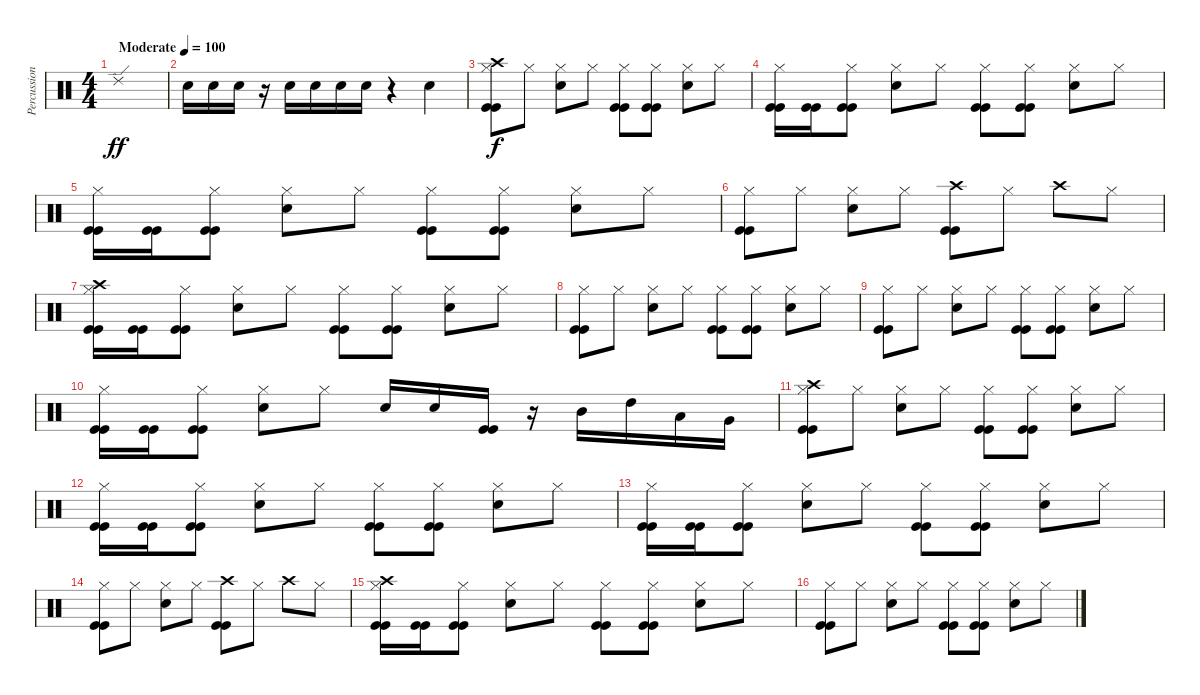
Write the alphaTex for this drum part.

\track ("Percussion" "Percussion") {instrument percussion}
\staff {score}
\articulation defaults
\ts (4 4)
\tempo (100 "Moderate")
\clef neutral
\ks c "Ride (edge) 2".1{dy ff}
|
"Snare (hit) 2".16 "Snare (hit) 2".16 "Snare (hit) 2".16 r.16 "Snare (hit) 2".16 "Snare (hit) 2".16 "Snare (hit) 2".16 "Snare (hit) 2".16 r.4 "Snare (hit) 2".4 |
("Kick (hit)" "Kick (hit)" "Hi-Hat (closed)" "Crash high (hit)").8{dy f} "Hi-Hat (closed)".8 ("Snare (hit) 2" "Hi-Hat (closed)").8 "Hi-Hat (closed)".8 ("Kick (hit)" "Kick (hit)" "Hi-Hat (closed)").8 ("Kick (hit)" "Kick (hit)" "Hi-Hat (closed)").8 ("Snare (hit) 2" "Hi-Hat (closed)").8 "Hi-Hat (closed)".8 |
("Kick (hit)" "Kick (hit)" "Hi-Hat (closed)").16 ("Kick (hit)" "Kick (hit)").16 ("Kick (hit)" "Kick (hit)" "Hi-Hat (closed)").8 ("Snare (hit) 2" "Hi-Hat (closed)").8 "Hi-Hat (closed)".8 ("Kick (hit)" "Kick (hit)" "Hi-Hat (closed)").8 ("Kick (hit)" "Kick (hit)" "Hi-Hat (closed)").8 ("Snare (hit) 2" "Hi-Hat (closed)").8 "Hi-Hat (closed)".8 |
("Kick (hit)" "Kick (hit)" "Hi-Hat (closed)").16 ("Kick (hit)" "Kick (hit)").16 ("Kick (hit)" "Kick (hit)" "Hi-Hat (closed)").8 ("Snare (hit) 2" "Hi-Hat (closed)").8 "Hi-Hat (closed)".8 ("Kick (hit)" "Kick (hit)" "Hi-Hat (closed)").8 ("Kick (hit)" "Kick (hit)" "Hi-Hat (closed)").8 ("Snare (hit) 2" "Hi-Hat (closed)").8 "Hi-Hat (closed)".8 |
("Kick (hit)" "Kick (hit)" "Hi-Hat (closed)").8 "Hi-Hat (closed)".8 ("Snare (hit) 2" "Hi-Hat (closed)").8 "Hi-Hat (closed)".8 ("Kick (hit)" "Kick (hit)" "Crash high (hit)").8 "Hi-Hat (closed)".8 "Crash high (hit)".8 "Hi-Hat (closed)".8 |
("Kick (hit)" "Kick (hit)" "Hi-Hat (closed)" "Crash high (hit)").16 ("Kick (hit)" "Kick (hit)").16 ("Kick (hit)" "Kick (hit)" "Hi-Hat (closed)").8 ("Snare (hit) 2" "Hi-Hat (closed)").8 "Hi-Hat (closed)".8 ("Kick (hit)" "Kick (hit)" "Hi-Hat (closed)").8 ("Kick (hit)" "Kick (hit)" "Hi-Hat (closed)").8 ("Snare (hit) 2" "Hi-Hat (closed)").8 "Hi-Hat (closed)".8 |
("Kick (hit)" "Kick (hit)" "Hi-Hat (closed)").8 "Hi-Hat (closed)".8 ("Snare (hit) 2" "Hi-Hat (closed)").8 "Hi-Hat (closed)".8 ("Kick (hit)" "Kick (hit)" "Hi-Hat (closed)").8 ("Kick (hit)" "Kick (hit)" "Hi-Hat (closed)").8 ("Snare (hit) 2" "Hi-Hat (closed)").8 "Hi-Hat (closed)".8 |
("Kick (hit)" "Kick (hit)" "Hi-Hat (closed)").8 "Hi-Hat (closed)".8 ("Snare (hit) 2" "Hi-Hat (closed)").8 "Hi-Hat (closed)".8 ("Kick (hit)" "Kick (hit)" "Hi-Hat (closed)").8 ("Kick (hit)" "Kick (hit)" "Hi-Hat (closed)").8 ("Snare (hit) 2" "Hi-Hat (closed)").8 "Hi-Hat (closed)".8 |
("Kick (hit)" "Kick (hit)" "Hi-Hat (closed)").16 ("Kick (hit)" "Kick (hit)").16 ("Kick (hit)" "Kick (hit)" "Hi-Hat (closed)").8 ("Snare (hit) 2" "Hi-Hat (closed)").8 "Hi-Hat (closed)".8 "Snare (hit) 2".16 "Snare (hit) 2".16 ("Kick (hit)" "Kick (hit)").16 r.16 "Mid Tom (hit)".16 "High Tom (hit)".16 "Low Tom (hit)".16 "Very Low Tom (hit)".16 |
("Kick (hit)" "Kick (hit)" "Hi-Hat (closed)" "Crash high (hit)").8 "Hi-Hat (closed)".8 ("Snare (hit) 2" "Hi-Hat (closed)").8 "Hi-Hat (closed)".8 ("Kick (hit)" "Kick (hit)" "Hi-Hat (closed)").8 ("Kick (hit)" "Kick (hit)" "Hi-Hat (closed)").8 ("Snare (hit) 2" "Hi-Hat (closed)").8 "Hi-Hat (closed)".8 |
("Kick (hit)" "Kick (hit)" "Hi-Hat (closed)").16 ("Kick (hit)" "Kick (hit)").16 ("Kick (hit)" "Kick (hit)" "Hi-Hat (closed)").8 ("Snare (hit) 2" "Hi-Hat (closed)").8 "Hi-Hat (closed)".8 ("Kick (hit)" "Kick (hit)" "Hi-Hat (closed)").8 ("Kick (hit)" "Kick (hit)" "Hi-Hat (closed)").8 ("Snare (hit) 2" "Hi-Hat (closed)").8 "Hi-Hat (closed)".8 |
("Kick (hit)" "Kick (hit)" "Hi-Hat (closed)").16 ("Kick (hit)" "Kick (hit)").16 ("Kick (hit)" "Kick (hit)" "Hi-Hat (closed)").8 ("Snare (hit) 2" "Hi-Hat (closed)").8 "Hi-Hat (closed)".8 ("Kick (hit)" "Kick (hit)" "Hi-Hat (closed)").8 ("Kick (hit)" "Kick (hit)" "Hi-Hat (closed)").8 ("Snare (hit) 2" "Hi-Hat (closed)").8 "Hi-Hat (closed)".8 |
("Kick (hit)" "Kick (hit)" "Hi-Hat (closed)").8 "Hi-Hat (closed)".8 ("Snare (hit) 2" "Hi-Hat (closed)").8 "Hi-Hat (closed)".8 ("Kick (hit)" "Kick (hit)" "Crash high (hit)").8 "Hi-Hat (closed)".8 "Crash high (hit)".8 "Hi-Hat (closed)".8 |
("Kick (hit)" "Kick (hit)" "Hi-Hat (closed)" "Crash high (hit)").16 ("Kick (hit)" "Kick (hit)").16 ("Kick (hit)" "Kick (hit)" "Hi-Hat (closed)").8 ("Snare (hit) 2" "Hi-Hat (closed)").8 "Hi-Hat (closed)".8 ("Kick (hit)" "Kick (hit)" "Hi-Hat (closed)").8 ("Kick (hit)" "Kick (hit)" "Hi-Hat (closed)").8 ("Snare (hit) 2" "Hi-Hat (closed)").8 "Hi-Hat (closed)".8 |
("Kick (hit)" "Kick (hit)" "Hi-Hat (closed)").8 "Hi-Hat (closed)".8 ("Snare (hit) 2" "Hi-Hat (closed)").8 "Hi-Hat (closed)".8 ("Kick (hit)" "Kick (hit)" "Hi-Hat (closed)").8 ("Kick (hit)" "Kick (hit)" "Hi-Hat (closed)").8 ("Snare (hit) 2" "Hi-Hat (closed)").8 "Hi-Hat (closed)".8
